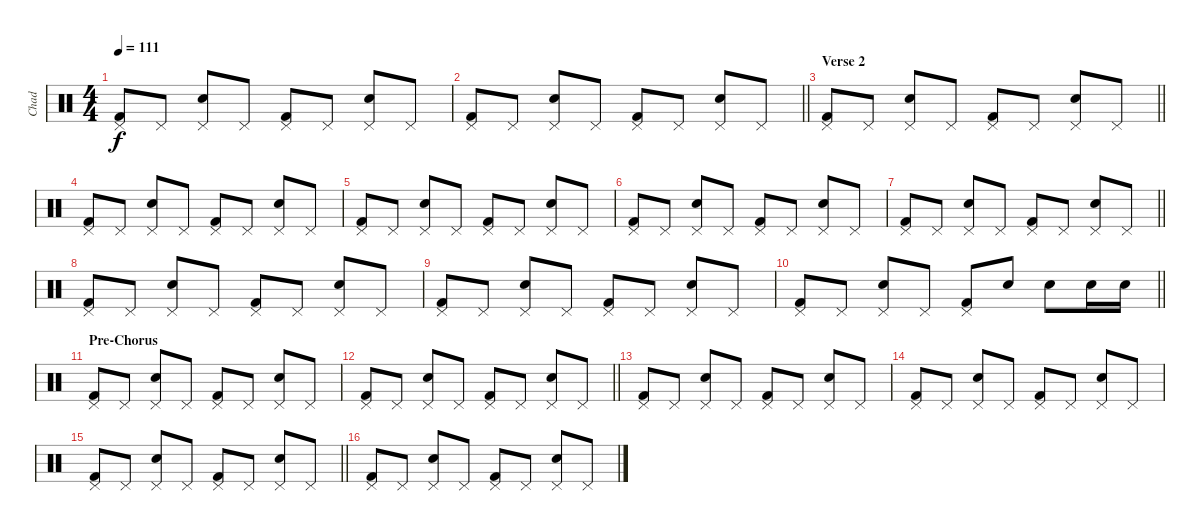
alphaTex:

\track ("Chad" "Chad") {instrument percussion}
\staff {score}
\articulation defaults
\ts (4 4)
\tempo 111
\clef neutral
\ks c
("Pedal Hi-Hat (hit)" "Kick (hit) 2").8{dy f} "Pedal Hi-Hat (hit)".8 ("Pedal Hi-Hat (hit)" "Snare (hit) 2").8 "Pedal Hi-Hat (hit)".8 ("Pedal Hi-Hat (hit)" "Kick (hit) 2").8 "Pedal Hi-Hat (hit)".8 ("Pedal Hi-Hat (hit)" "Snare (hit) 2").8 "Pedal Hi-Hat (hit)".8 |
\barLineRight lightlight
("Pedal Hi-Hat (hit)" "Kick (hit) 2").8 "Pedal Hi-Hat (hit)".8 ("Pedal Hi-Hat (hit)" "Snare (hit) 2").8 "Pedal Hi-Hat (hit)".8 ("Pedal Hi-Hat (hit)" "Kick (hit) 2").8 "Pedal Hi-Hat (hit)".8 ("Pedal Hi-Hat (hit)" "Snare (hit) 2").8 "Pedal Hi-Hat (hit)".8 |
\section ("" "Verse 2")
\barLineRight lightlight
("Pedal Hi-Hat (hit)" "Kick (hit) 2").8 "Pedal Hi-Hat (hit)".8 ("Pedal Hi-Hat (hit)" "Snare (hit) 2").8 "Pedal Hi-Hat (hit)".8 ("Pedal Hi-Hat (hit)" "Kick (hit) 2").8 "Pedal Hi-Hat (hit)".8 ("Pedal Hi-Hat (hit)" "Snare (hit) 2").8 "Pedal Hi-Hat (hit)".8 |
("Pedal Hi-Hat (hit)" "Kick (hit) 2").8 "Pedal Hi-Hat (hit)".8 ("Pedal Hi-Hat (hit)" "Snare (hit) 2").8 "Pedal Hi-Hat (hit)".8 ("Pedal Hi-Hat (hit)" "Kick (hit) 2").8 "Pedal Hi-Hat (hit)".8 ("Pedal Hi-Hat (hit)" "Snare (hit) 2").8 "Pedal Hi-Hat (hit)".8 |
("Pedal Hi-Hat (hit)" "Kick (hit) 2").8 "Pedal Hi-Hat (hit)".8 ("Pedal Hi-Hat (hit)" "Snare (hit) 2").8 "Pedal Hi-Hat (hit)".8 ("Pedal Hi-Hat (hit)" "Kick (hit) 2").8 "Pedal Hi-Hat (hit)".8 ("Pedal Hi-Hat (hit)" "Snare (hit) 2").8 "Pedal Hi-Hat (hit)".8 |
("Pedal Hi-Hat (hit)" "Kick (hit) 2").8 "Pedal Hi-Hat (hit)".8 ("Pedal Hi-Hat (hit)" "Snare (hit) 2").8 "Pedal Hi-Hat (hit)".8 ("Pedal Hi-Hat (hit)" "Kick (hit) 2").8 "Pedal Hi-Hat (hit)".8 ("Pedal Hi-Hat (hit)" "Snare (hit) 2").8 "Pedal Hi-Hat (hit)".8 |
\barLineRight lightlight
("Pedal Hi-Hat (hit)" "Kick (hit) 2").8 "Pedal Hi-Hat (hit)".8 ("Pedal Hi-Hat (hit)" "Snare (hit) 2").8 "Pedal Hi-Hat (hit)".8 ("Pedal Hi-Hat (hit)" "Kick (hit) 2").8 "Pedal Hi-Hat (hit)".8 ("Pedal Hi-Hat (hit)" "Snare (hit) 2").8 "Pedal Hi-Hat (hit)".8 |
("Pedal Hi-Hat (hit)" "Kick (hit) 2").8 "Pedal Hi-Hat (hit)".8 ("Pedal Hi-Hat (hit)" "Snare (hit) 2").8 "Pedal Hi-Hat (hit)".8 ("Pedal Hi-Hat (hit)" "Kick (hit) 2").8 "Pedal Hi-Hat (hit)".8 ("Pedal Hi-Hat (hit)" "Snare (hit) 2").8 "Pedal Hi-Hat (hit)".8 |
("Pedal Hi-Hat (hit)" "Kick (hit) 2").8 "Pedal Hi-Hat (hit)".8 ("Pedal Hi-Hat (hit)" "Snare (hit) 2").8 "Pedal Hi-Hat (hit)".8 ("Pedal Hi-Hat (hit)" "Kick (hit) 2").8 "Pedal Hi-Hat (hit)".8 ("Pedal Hi-Hat (hit)" "Snare (hit) 2").8 "Pedal Hi-Hat (hit)".8 |
\barLineRight lightlight
("Pedal Hi-Hat (hit)" "Kick (hit) 2").8 "Pedal Hi-Hat (hit)".8 ("Pedal Hi-Hat (hit)" "Snare (hit) 2").8 "Pedal Hi-Hat (hit)".8 ("Pedal Hi-Hat (hit)" "Kick (hit) 2").8 "Snare (hit) 2".8 "Snare (hit) 2".8 "Snare (hit) 2".16 "Snare (hit) 2".16 |
\section ("" "Pre-Chorus")
("Pedal Hi-Hat (hit)" "Kick (hit) 2").8 "Pedal Hi-Hat (hit)".8 ("Pedal Hi-Hat (hit)" "Snare (hit) 2").8 "Pedal Hi-Hat (hit)".8 ("Pedal Hi-Hat (hit)" "Kick (hit) 2").8 "Pedal Hi-Hat (hit)".8 ("Pedal Hi-Hat (hit)" "Snare (hit) 2").8 "Pedal Hi-Hat (hit)".8 |
\barLineRight lightlight
("Pedal Hi-Hat (hit)" "Kick (hit) 2").8 "Pedal Hi-Hat (hit)".8 ("Pedal Hi-Hat (hit)" "Snare (hit) 2").8 "Pedal Hi-Hat (hit)".8 ("Pedal Hi-Hat (hit)" "Kick (hit) 2").8 "Pedal Hi-Hat (hit)".8 ("Pedal Hi-Hat (hit)" "Snare (hit) 2").8 "Pedal Hi-Hat (hit)".8 |
("Pedal Hi-Hat (hit)" "Kick (hit) 2").8 "Pedal Hi-Hat (hit)".8 ("Pedal Hi-Hat (hit)" "Snare (hit) 2").8 "Pedal Hi-Hat (hit)".8 ("Pedal Hi-Hat (hit)" "Kick (hit) 2").8 "Pedal Hi-Hat (hit)".8 ("Pedal Hi-Hat (hit)" "Snare (hit) 2").8 "Pedal Hi-Hat (hit)".8 |
("Pedal Hi-Hat (hit)" "Kick (hit) 2").8 "Pedal Hi-Hat (hit)".8 ("Pedal Hi-Hat (hit)" "Snare (hit) 2").8 "Pedal Hi-Hat (hit)".8 ("Pedal Hi-Hat (hit)" "Kick (hit) 2").8 "Pedal Hi-Hat (hit)".8 ("Pedal Hi-Hat (hit)" "Snare (hit) 2").8 "Pedal Hi-Hat (hit)".8 |
\barLineRight lightlight
("Pedal Hi-Hat (hit)" "Kick (hit) 2").8 "Pedal Hi-Hat (hit)".8 ("Pedal Hi-Hat (hit)" "Snare (hit) 2").8 "Pedal Hi-Hat (hit)".8 ("Pedal Hi-Hat (hit)" "Kick (hit) 2").8 "Pedal Hi-Hat (hit)".8 ("Pedal Hi-Hat (hit)" "Snare (hit) 2").8 "Pedal Hi-Hat (hit)".8 |
("Pedal Hi-Hat (hit)" "Kick (hit) 2").8 "Pedal Hi-Hat (hit)".8 ("Pedal Hi-Hat (hit)" "Snare (hit) 2").8 "Pedal Hi-Hat (hit)".8 ("Pedal Hi-Hat (hit)" "Kick (hit) 2").8 "Pedal Hi-Hat (hit)".8 ("Pedal Hi-Hat (hit)" "Snare (hit) 2").8 "Pedal Hi-Hat (hit)".8
